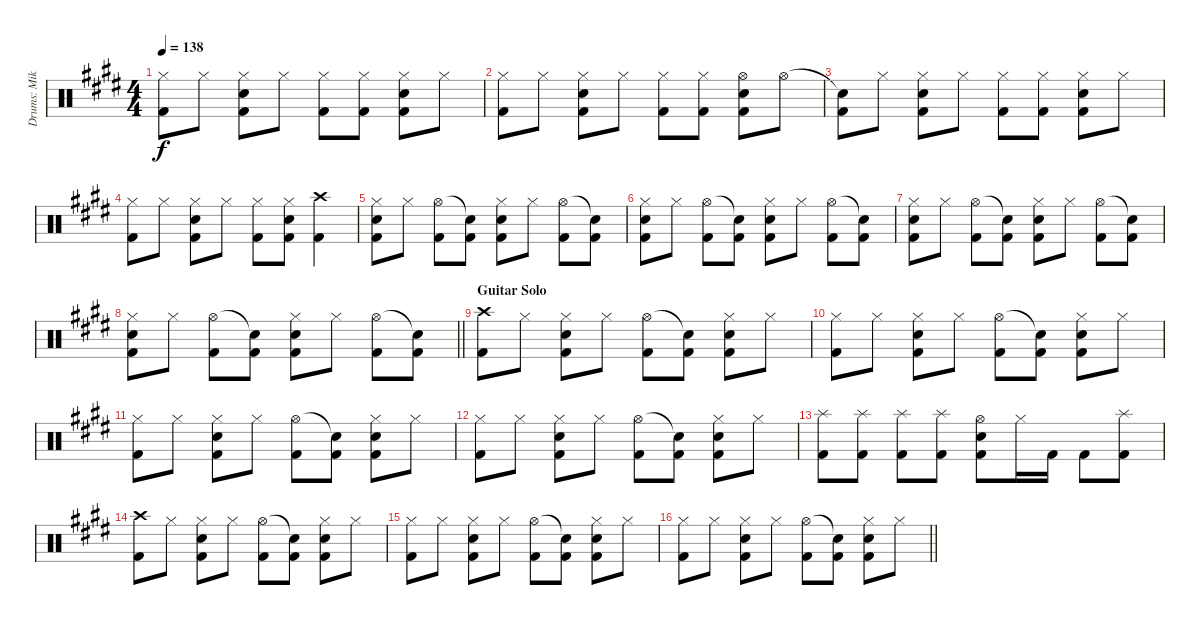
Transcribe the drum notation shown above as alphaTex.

\track ("Drums: Mike" "Drums: Mik") {instrument percussion}
\staff {score}
\articulation defaults
\ts (4 4)
\tempo 138
\clef neutral
\ks e
("Hi-Hat (closed)" "Kick (hit) 2").8{dy f} "Hi-Hat (closed)".8 ("Hi-Hat (closed)" "Electric Snare (hit)" "Kick (hit) 2").8 "Hi-Hat (closed)".8 ("Hi-Hat (closed)" "Kick (hit) 2").8 ("Hi-Hat (closed)" "Kick (hit) 2").8 ("Hi-Hat (closed)" "Electric Snare (hit)" "Kick (hit) 2").8 "Hi-Hat (closed)".8 |
("Hi-Hat (closed)" "Kick (hit) 2").8 "Hi-Hat (closed)".8 ("Hi-Hat (closed)" "Electric Snare (hit)" "Kick (hit) 2").8 "Hi-Hat (closed)".8 ("Hi-Hat (closed)" "Kick (hit) 2").8 ("Hi-Hat (closed)" "Kick (hit) 2").8 ("Hi-Hat (open)" "Electric Snare (hit)" "Kick (hit) 2").8 "Hi-Hat (open)".8 |
("Snare (hit)"{t} "Kick (hit) 2").8 "Hi-Hat (closed)".8 ("Hi-Hat (closed)" "Electric Snare (hit)" "Kick (hit) 2").8 "Hi-Hat (closed)".8 ("Hi-Hat (closed)" "Kick (hit) 2").8 ("Hi-Hat (closed)" "Kick (hit) 2").8 ("Hi-Hat (closed)" "Electric Snare (hit)" "Kick (hit) 2").8 "Hi-Hat (closed)".8 |
("Hi-Hat (closed)" "Kick (hit) 2").8 "Hi-Hat (closed)".8 ("Hi-Hat (closed)" "Electric Snare (hit)" "Kick (hit) 2").8 "Hi-Hat (closed)".8 ("Hi-Hat (closed)" "Kick (hit) 2").8 ("Hi-Hat (closed)" "Electric Snare (hit)" "Kick (hit) 2").8 ("Crash high (hit)" "Kick (hit) 2").4 |
("Hi-Hat (closed)" "Electric Snare (hit)" "Kick (hit) 2").8 "Hi-Hat (closed)".8 ("Hi-Hat (open)" "Kick (hit) 2").8 ("Snare (hit)"{t} "Kick (hit) 2").8 ("Hi-Hat (closed)" "Electric Snare (hit)" "Kick (hit) 2").8 "Hi-Hat (closed)".8 ("Hi-Hat (open)" "Kick (hit) 2").8 ("Snare (hit)"{t} "Kick (hit) 2").8 |
("Hi-Hat (closed)" "Electric Snare (hit)" "Kick (hit) 2").8 "Hi-Hat (closed)".8 ("Hi-Hat (open)" "Kick (hit) 2").8 ("Snare (hit)"{t} "Kick (hit) 2").8 ("Hi-Hat (closed)" "Electric Snare (hit)" "Kick (hit) 2").8 "Hi-Hat (closed)".8 ("Hi-Hat (open)" "Kick (hit) 2").8 ("Snare (hit)"{t} "Kick (hit) 2").8 |
("Hi-Hat (closed)" "Electric Snare (hit)" "Kick (hit) 2").8 "Hi-Hat (closed)".8 ("Hi-Hat (open)" "Kick (hit) 2").8 ("Snare (hit)"{t} "Kick (hit) 2").8 ("Hi-Hat (closed)" "Electric Snare (hit)" "Kick (hit) 2").8 "Hi-Hat (closed)".8 ("Hi-Hat (open)" "Kick (hit) 2").8 ("Snare (hit)"{t} "Kick (hit) 2").8 |
\barLineRight lightlight
("Hi-Hat (closed)" "Electric Snare (hit)" "Kick (hit) 2").8 "Hi-Hat (closed)".8 ("Hi-Hat (open)" "Kick (hit) 2").8 ("Snare (hit)"{t} "Kick (hit) 2").8 ("Hi-Hat (closed)" "Electric Snare (hit)" "Kick (hit) 2").8 "Hi-Hat (closed)".8 ("Hi-Hat (open)" "Kick (hit) 2").8 ("Snare (hit)"{t} "Kick (hit) 2").8 |
\section ("" "Guitar Solo")
("Crash high (hit)" "Kick (hit) 2").8 "Hi-Hat (closed)".8 ("Hi-Hat (closed)" "Electric Snare (hit)" "Kick (hit) 2").8 "Hi-Hat (closed)".8 ("Hi-Hat (open)" "Kick (hit) 2").8 ("Snare (hit)"{t} "Kick (hit) 2").8 ("Hi-Hat (closed)" "Electric Snare (hit)" "Kick (hit) 2").8 "Hi-Hat (closed)".8 |
("Hi-Hat (closed)" "Kick (hit) 2").8 "Hi-Hat (closed)".8 ("Hi-Hat (closed)" "Electric Snare (hit)" "Kick (hit) 2").8 "Hi-Hat (closed)".8 ("Hi-Hat (open)" "Kick (hit) 2").8 ("Snare (hit)"{t} "Kick (hit) 2").8 ("Hi-Hat (closed)" "Electric Snare (hit)" "Kick (hit) 2").8 "Hi-Hat (closed)".8 |
("Hi-Hat (closed)" "Kick (hit) 2").8 "Hi-Hat (closed)".8 ("Hi-Hat (closed)" "Electric Snare (hit)" "Kick (hit) 2").8 "Hi-Hat (closed)".8 ("Hi-Hat (open)" "Kick (hit) 2").8 ("Snare (hit)"{t} "Kick (hit) 2").8 ("Hi-Hat (closed)" "Electric Snare (hit)" "Kick (hit) 2").8 "Hi-Hat (closed)".8 |
("Hi-Hat (closed)" "Kick (hit) 2").8 "Hi-Hat (closed)".8 ("Hi-Hat (closed)" "Electric Snare (hit)" "Kick (hit) 2").8 "Hi-Hat (closed)".8 ("Hi-Hat (open)" "Kick (hit) 2").8 ("Snare (hit)"{t} "Kick (hit) 2").8 ("Hi-Hat (closed)" "Electric Snare (hit)" "Kick (hit) 2").8 "Hi-Hat (closed)".8 |
("Splash (hit)" "Kick (hit) 2").8 ("Splash (hit)" "Kick (hit) 2").8 ("Splash (hit)" "Kick (hit) 2").8 ("Splash (hit)" "Kick (hit) 2").8 ("Hi-Hat (open)" "Snare (hit) 2" "Kick (hit) 2").8 "Hi-Hat (closed)".16 "Kick (hit) 2".16 "Kick (hit) 2".8 ("Splash (hit)" "Kick (hit) 2").8 |
("Crash high (hit)" "Kick (hit) 2").8 "Hi-Hat (closed)".8 ("Hi-Hat (closed)" "Electric Snare (hit)" "Kick (hit) 2").8 "Hi-Hat (closed)".8 ("Hi-Hat (open)" "Kick (hit) 2").8 ("Snare (hit)"{t} "Kick (hit) 2").8 ("Hi-Hat (closed)" "Electric Snare (hit)" "Kick (hit) 2").8 "Hi-Hat (closed)".8 |
("Hi-Hat (closed)" "Kick (hit) 2").8 "Hi-Hat (closed)".8 ("Hi-Hat (closed)" "Electric Snare (hit)" "Kick (hit) 2").8 "Hi-Hat (closed)".8 ("Hi-Hat (open)" "Kick (hit) 2").8 ("Snare (hit)"{t} "Kick (hit) 2").8 ("Hi-Hat (closed)" "Electric Snare (hit)" "Kick (hit) 2").8 "Hi-Hat (closed)".8 |
\barLineRight lightlight
("Hi-Hat (closed)" "Kick (hit) 2").8 "Hi-Hat (closed)".8 ("Hi-Hat (closed)" "Electric Snare (hit)" "Kick (hit) 2").8 "Hi-Hat (closed)".8 ("Hi-Hat (open)" "Kick (hit) 2").8 ("Snare (hit)"{t} "Kick (hit) 2").8 ("Hi-Hat (closed)" "Electric Snare (hit)" "Kick (hit) 2").8 "Hi-Hat (closed)".8
